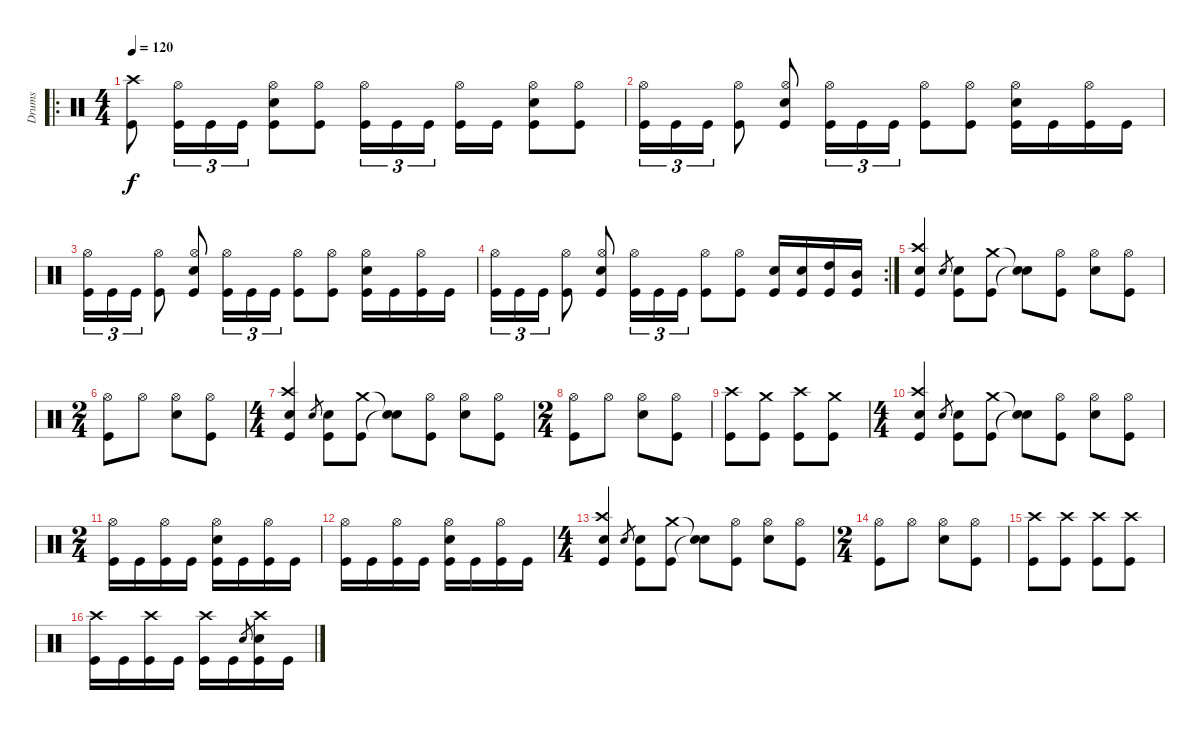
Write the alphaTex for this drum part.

\track ("Drums" "Drums") {instrument percussion}
\staff {score}
\articulation defaults
\ro
\ts (4 4)
\tempo 120
\clef neutral
\ks c
("Kick (hit)" "Crash high (hit)").8{dy f} ("Kick (hit)" "Hi-Hat (open)").16{tu (3 2)} "Kick (hit)".16{tu (3 2)} "Kick (hit)".16{tu (3 2)} ("Kick (hit)" "Electric Snare (hit)" "Hi-Hat (open)").8 ("Kick (hit)" "Hi-Hat (open)").8 ("Kick (hit)" "Hi-Hat (open)").16{tu (3 2)} "Kick (hit)".16{tu (3 2)} "Kick (hit)".16{tu (3 2)} ("Kick (hit)" "Hi-Hat (open)").16 "Kick (hit)".16 ("Kick (hit)" "Electric Snare (hit)" "Hi-Hat (open)").8 ("Kick (hit)" "Hi-Hat (open)").8 |
("Kick (hit)" "Hi-Hat (open)").16{tu (3 2)} "Kick (hit)".16{tu (3 2)} "Kick (hit)".16{tu (3 2)} ("Kick (hit)" "Hi-Hat (open)").8 ("Kick (hit)" "Electric Snare (hit)" "Hi-Hat (open)").8 ("Kick (hit)" "Hi-Hat (open)").16{tu (3 2)} "Kick (hit)".16{tu (3 2)} "Kick (hit)".16{tu (3 2)} ("Kick (hit)" "Hi-Hat (open)").8 ("Kick (hit)" "Hi-Hat (open)").8 ("Kick (hit)" "Electric Snare (hit)" "Hi-Hat (open)").16 "Kick (hit)".16 ("Kick (hit)" "Hi-Hat (open)").16 "Kick (hit)".16 |
("Kick (hit)" "Hi-Hat (open)").16{tu (3 2)} "Kick (hit)".16{tu (3 2)} "Kick (hit)".16{tu (3 2)} ("Kick (hit)" "Hi-Hat (open)").8 ("Kick (hit)" "Electric Snare (hit)" "Hi-Hat (open)").8 ("Kick (hit)" "Hi-Hat (open)").16{tu (3 2)} "Kick (hit)".16{tu (3 2)} "Kick (hit)".16{tu (3 2)} ("Kick (hit)" "Hi-Hat (open)").8 ("Kick (hit)" "Hi-Hat (open)").8 ("Kick (hit)" "Electric Snare (hit)" "Hi-Hat (open)").16 "Kick (hit)".16 ("Kick (hit)" "Hi-Hat (open)").16 "Kick (hit)".16 |
\rc 2
("Kick (hit)" "Hi-Hat (open)").16{tu (3 2)} "Kick (hit)".16{tu (3 2)} "Kick (hit)".16{tu (3 2)} ("Kick (hit)" "Hi-Hat (open)").8 ("Kick (hit)" "Electric Snare (hit)" "Hi-Hat (open)").8 ("Kick (hit)" "Hi-Hat (open)").16{tu (3 2)} "Kick (hit)".16{tu (3 2)} "Kick (hit)".16{tu (3 2)} ("Kick (hit)" "Hi-Hat (open)").8 ("Kick (hit)" "Hi-Hat (open)").8 ("Kick (hit)" "Electric Snare (hit)").16 ("Kick (hit)" "Electric Snare (hit)").16 ("Kick (hit)" "High Tom (hit)").16 ("Kick (hit)" "Mid Tom (hit)").16 |
("Kick (hit)" "Electric Snare (hit)" "Crash high (hit)").4 "Electric Snare (hit)".8{gr} ("Kick (hit)" "Electric Snare (hit)").8 ("Kick (hit)" "Crash medium (hit)").8 ("Snare (hit)"{t} "Snare (hit)"{t}).8 ("Kick (hit)" "Hi-Hat (open)").8 ("Electric Snare (hit)" "Hi-Hat (open)").8 ("Kick (hit)" "Hi-Hat (open)").8 |
\ts (2 4)
("Kick (hit)" "Hi-Hat (open)").8 "Hi-Hat (open)".8 ("Electric Snare (hit)" "Hi-Hat (open)").8 ("Kick (hit)" "Hi-Hat (open)").8 |
\ts (4 4)
("Kick (hit)" "Electric Snare (hit)" "Crash high (hit)").4 "Electric Snare (hit)".8{gr} ("Kick (hit)" "Electric Snare (hit)").8 ("Kick (hit)" "Crash medium (hit)").8 ("Snare (hit)"{t} "Snare (hit)"{t}).8 ("Kick (hit)" "Hi-Hat (open)").8 ("Electric Snare (hit)" "Hi-Hat (open)").8 ("Kick (hit)" "Hi-Hat (open)").8 |
\ts (2 4)
("Kick (hit)" "Hi-Hat (open)").8 "Hi-Hat (open)".8 ("Electric Snare (hit)" "Hi-Hat (open)").8 ("Kick (hit)" "Hi-Hat (open)").8 |
("Kick (hit)" "Crash high (hit)").8 ("Kick (hit)" "Crash medium (hit)").8 ("Kick (hit)" "Crash high (hit)").8 ("Kick (hit)" "Crash medium (hit)").8 |
\ts (4 4)
("Kick (hit)" "Electric Snare (hit)" "Crash high (hit)").4 "Electric Snare (hit)".8{gr} ("Kick (hit)" "Electric Snare (hit)").8 ("Kick (hit)" "Crash medium (hit)").8 ("Snare (hit)"{t} "Snare (hit)"{t}).8 ("Kick (hit)" "Hi-Hat (open)").8 ("Electric Snare (hit)" "Hi-Hat (open)").8 ("Kick (hit)" "Hi-Hat (open)").8 |
\ts (2 4)
("Kick (hit)" "Hi-Hat (open)").16 "Kick (hit)".16 ("Kick (hit)" "Hi-Hat (open)").16 "Kick (hit)".16 ("Kick (hit)" "Electric Snare (hit)" "Hi-Hat (open)").16 "Kick (hit)".16 ("Kick (hit)" "Hi-Hat (open)").16 "Kick (hit)".16 |
("Kick (hit)" "Hi-Hat (open)").16 "Kick (hit)".16 ("Kick (hit)" "Hi-Hat (open)").16 "Kick (hit)".16 ("Kick (hit)" "Electric Snare (hit)" "Hi-Hat (open)").16 "Kick (hit)".16 ("Kick (hit)" "Hi-Hat (open)").16 "Kick (hit)".16 |
\ts (4 4)
("Kick (hit)" "Electric Snare (hit)" "Crash high (hit)").4 "Electric Snare (hit)".8{gr} ("Kick (hit)" "Electric Snare (hit)").8 ("Kick (hit)" "Crash medium (hit)").8 ("Snare (hit)"{t} "Snare (hit)"{t}).8 ("Kick (hit)" "Hi-Hat (open)").8 ("Electric Snare (hit)" "Hi-Hat (open)").8 ("Kick (hit)" "Hi-Hat (open)").8 |
\ts (2 4)
("Kick (hit)" "Hi-Hat (open)").8 "Hi-Hat (open)".8 ("Electric Snare (hit)" "Hi-Hat (open)").8 ("Kick (hit)" "Hi-Hat (open)").8 |
("Kick (hit)" "Crash high (hit)").8 ("Kick (hit)" "Crash high (hit)").8 ("Kick (hit)" "Crash high (hit)").8 ("Kick (hit)" "Crash high (hit)").8 |
("Kick (hit)" "Crash high (hit)").16 "Kick (hit)".16 ("Kick (hit)" "Crash high (hit)").16 "Kick (hit)".16 ("Kick (hit)" "Crash high (hit)").16 "Kick (hit)".16 "Electric Snare (hit)".8{gr} ("Kick (hit)" "Electric Snare (hit)" "Crash high (hit)").16 "Kick (hit)".16
